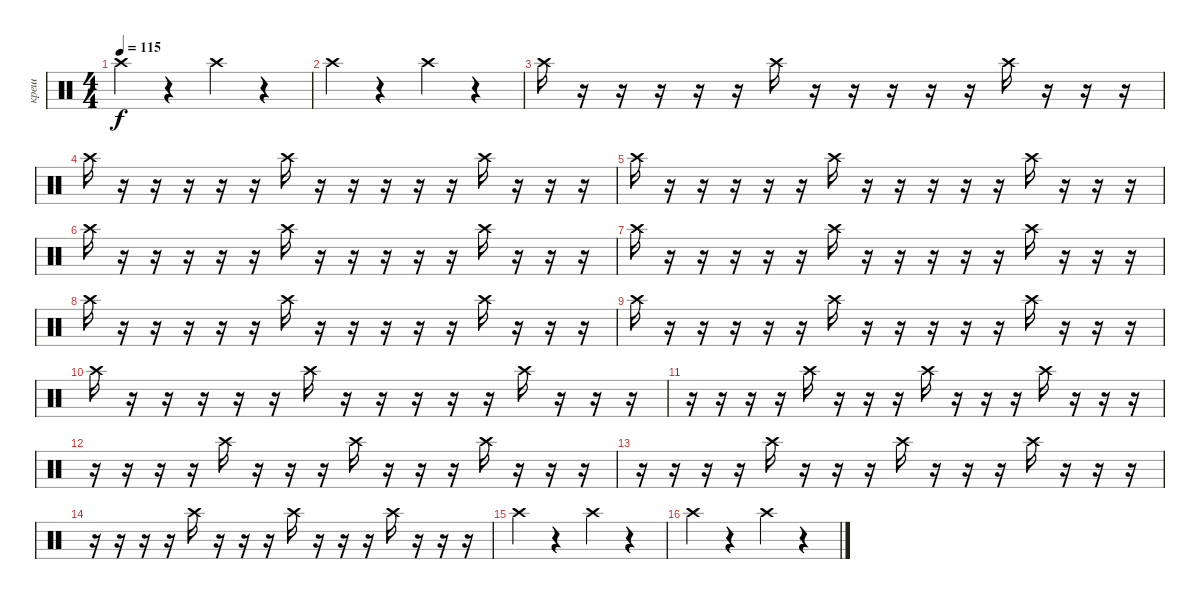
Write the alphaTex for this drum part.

\track ("креш" "креш") {mute instrument percussion}
\staff {score}
\articulation defaults
\ts (4 4)
\tempo 115
\clef neutral
\ks c "Crash high (hit)".4{dy f}
r.4 "Crash high (hit)".4 r.4 |
"Crash high (hit)".4 r.4 "Crash high (hit)".4 r.4 |
"Crash high (hit)".16 r.16 r.16 r.16 r.16 r.16 "Crash high (hit)".16 r.16 r.16 r.16 r.16 r.16 "Crash high (hit)".16 r.16 r.16 r.16 |
"Crash high (hit)".16 r.16 r.16 r.16 r.16 r.16 "Crash high (hit)".16 r.16 r.16 r.16 r.16 r.16 "Crash high (hit)".16 r.16 r.16 r.16 |
"Crash high (hit)".16 r.16 r.16 r.16 r.16 r.16 "Crash high (hit)".16 r.16 r.16 r.16 r.16 r.16 "Crash high (hit)".16 r.16 r.16 r.16 |
"Crash high (hit)".16 r.16 r.16 r.16 r.16 r.16 "Crash high (hit)".16 r.16 r.16 r.16 r.16 r.16 "Crash high (hit)".16 r.16 r.16 r.16 |
"Crash high (hit)".16 r.16 r.16 r.16 r.16 r.16 "Crash high (hit)".16 r.16 r.16 r.16 r.16 r.16 "Crash high (hit)".16 r.16 r.16 r.16 |
"Crash high (hit)".16 r.16 r.16 r.16 r.16 r.16 "Crash high (hit)".16 r.16 r.16 r.16 r.16 r.16 "Crash high (hit)".16 r.16 r.16 r.16 |
"Crash high (hit)".16 r.16 r.16 r.16 r.16 r.16 "Crash high (hit)".16 r.16 r.16 r.16 r.16 r.16 "Crash high (hit)".16 r.16 r.16 r.16 |
"Crash high (hit)".16 r.16 r.16 r.16 r.16 r.16 "Crash high (hit)".16 r.16 r.16 r.16 r.16 r.16 "Crash high (hit)".16 r.16 r.16 r.16 |
r.16 r.16 r.16 r.16 "Crash high (hit)".16 r.16 r.16 r.16 "Crash high (hit)".16 r.16 r.16 r.16 "Crash high (hit)".16 r.16 r.16 r.16 |
r.16 r.16 r.16 r.16 "Crash high (hit)".16 r.16 r.16 r.16 "Crash high (hit)".16 r.16 r.16 r.16 "Crash high (hit)".16 r.16 r.16 r.16 |
r.16 r.16 r.16 r.16 "Crash high (hit)".16 r.16 r.16 r.16 "Crash high (hit)".16 r.16 r.16 r.16 "Crash high (hit)".16 r.16 r.16 r.16 |
r.16 r.16 r.16 r.16 "Crash high (hit)".16 r.16 r.16 r.16 "Crash high (hit)".16 r.16 r.16 r.16 "Crash high (hit)".16 r.16 r.16 r.16 |
"Crash high (hit)".4 r.4 "Crash high (hit)".4 r.4 |
"Crash high (hit)".4 r.4 "Crash high (hit)".4 r.4
